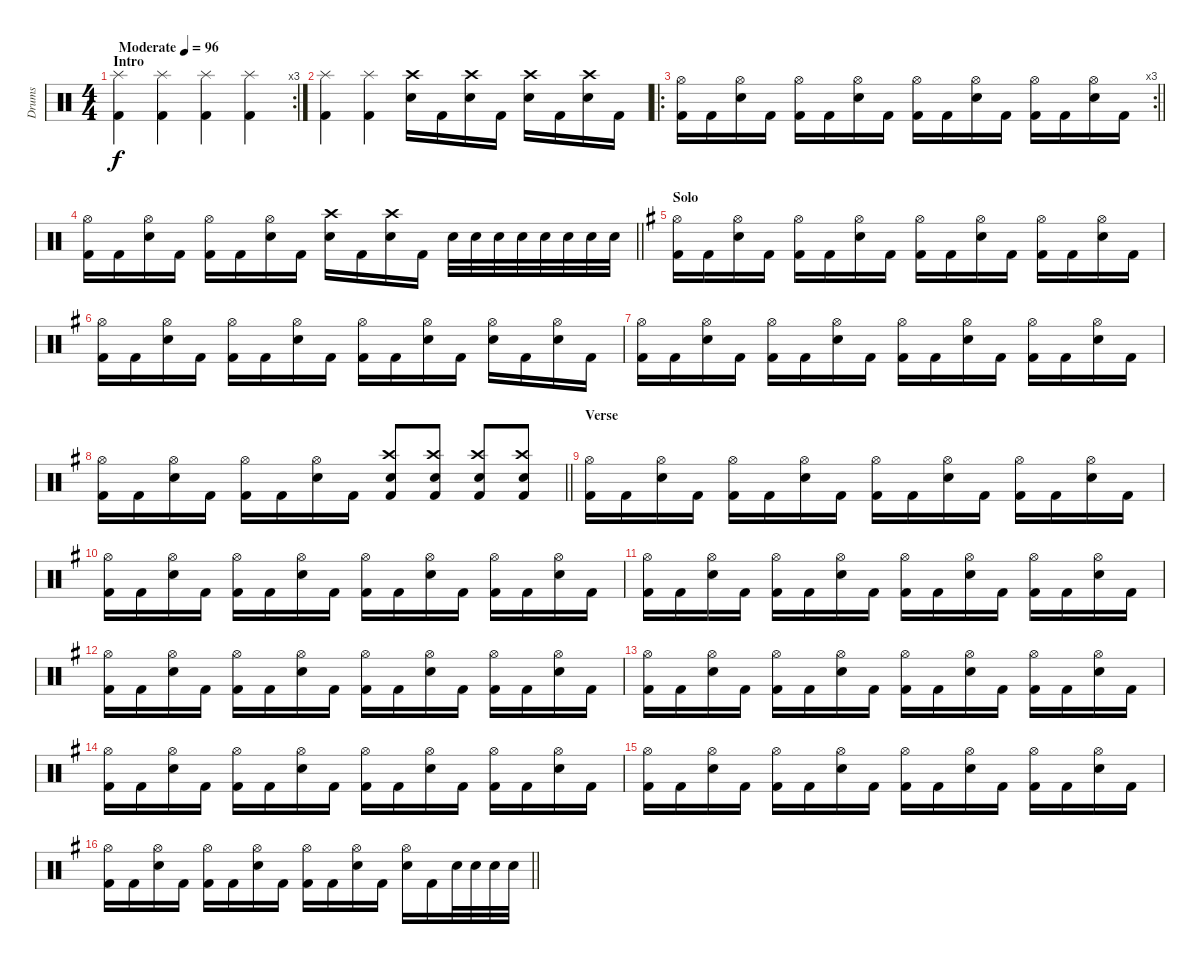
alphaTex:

\track ("Drums" "Drums") {instrument percussion}
\staff {score}
\articulation defaults
\rc 3
\ts (4 4)
\section ("" "Intro")
\tempo (96 "Moderate")
\clef neutral
\ks c
("Splash (hit)" "Kick (hit) 2").4{dy f} ("Splash (hit)" "Kick (hit) 2").4 ("Splash (hit)" "Kick (hit) 2").4 ("Splash (hit)" "Kick (hit) 2").4 |
("Splash (hit)" "Kick (hit) 2").4 ("Splash (hit)" "Kick (hit) 2").4 ("Crash high (hit)" "Electric Snare (hit)").16 "Kick (hit) 2".16 ("Crash high (hit)" "Electric Snare (hit)").16 "Kick (hit) 2".16 ("Crash high (hit)" "Electric Snare (hit)").16 "Kick (hit) 2".16 ("Crash high (hit)" "Electric Snare (hit)").16 "Kick (hit) 2".16 |
\ro
\rc 3
\barLineRight lightlight
("Hi-Hat (open)" "Kick (hit) 2").16 "Kick (hit) 2".16 ("Hi-Hat (open)" "Electric Snare (hit)").16 "Kick (hit) 2".16 ("Hi-Hat (open)" "Kick (hit) 2").16 "Kick (hit) 2".16 ("Hi-Hat (open)" "Electric Snare (hit)").16 "Kick (hit) 2".16 ("Hi-Hat (open)" "Kick (hit) 2").16 "Kick (hit) 2".16 ("Hi-Hat (open)" "Electric Snare (hit)").16 "Kick (hit) 2".16 ("Hi-Hat (open)" "Kick (hit) 2").16 "Kick (hit) 2".16 ("Hi-Hat (open)" "Electric Snare (hit)").16 "Kick (hit) 2".16 |
\barLineRight lightlight
("Hi-Hat (open)" "Kick (hit) 2").16 "Kick (hit) 2".16 ("Hi-Hat (open)" "Electric Snare (hit)").16 "Kick (hit) 2".16 ("Hi-Hat (open)" "Kick (hit) 2").16 "Kick (hit) 2".16 ("Hi-Hat (open)" "Electric Snare (hit)").16 "Kick (hit) 2".16 ("Crash high (hit)" "Electric Snare (hit)").16 "Kick (hit) 2".16 ("Crash high (hit)" "Electric Snare (hit)").16 "Kick (hit) 2".16 "Electric Snare (hit)".32 "Electric Snare (hit)".32 "Electric Snare (hit)".32 "Electric Snare (hit)".32 "Electric Snare (hit)".32 "Electric Snare (hit)".32 "Electric Snare (hit)".32 "Electric Snare (hit)".32 |
\section ("" "Solo")
\ks g
("Hi-Hat (open)" "Kick (hit) 2").16 "Kick (hit) 2".16 ("Hi-Hat (open)" "Electric Snare (hit)").16 "Kick (hit) 2".16 ("Hi-Hat (open)" "Kick (hit) 2").16 "Kick (hit) 2".16 ("Hi-Hat (open)" "Electric Snare (hit)").16 "Kick (hit) 2".16 ("Hi-Hat (open)" "Kick (hit) 2").16 "Kick (hit) 2".16 ("Hi-Hat (open)" "Electric Snare (hit)").16 "Kick (hit) 2".16 ("Hi-Hat (open)" "Kick (hit) 2").16 "Kick (hit) 2".16 ("Hi-Hat (open)" "Electric Snare (hit)").16 "Kick (hit) 2".16 |
("Hi-Hat (open)" "Kick (hit) 2").16 "Kick (hit) 2".16 ("Hi-Hat (open)" "Electric Snare (hit)").16 "Kick (hit) 2".16 ("Hi-Hat (open)" "Kick (hit) 2").16 "Kick (hit) 2".16 ("Hi-Hat (open)" "Electric Snare (hit)").16 "Kick (hit) 2".16 ("Hi-Hat (open)" "Kick (hit) 2").16 "Kick (hit) 2".16 ("Hi-Hat (open)" "Electric Snare (hit)").16 "Kick (hit) 2".16 ("Hi-Hat (open)" "Electric Snare (hit)").16 "Kick (hit) 2".16 ("Hi-Hat (open)" "Electric Snare (hit)").16 "Kick (hit) 2".16 |
("Hi-Hat (open)" "Kick (hit) 2").16 "Kick (hit) 2".16 ("Hi-Hat (open)" "Electric Snare (hit)").16 "Kick (hit) 2".16 ("Hi-Hat (open)" "Kick (hit) 2").16 "Kick (hit) 2".16 ("Hi-Hat (open)" "Electric Snare (hit)").16 "Kick (hit) 2".16 ("Hi-Hat (open)" "Kick (hit) 2").16 "Kick (hit) 2".16 ("Hi-Hat (open)" "Electric Snare (hit)").16 "Kick (hit) 2".16 ("Hi-Hat (open)" "Kick (hit) 2").16 "Kick (hit) 2".16 ("Hi-Hat (open)" "Electric Snare (hit)").16 "Kick (hit) 2".16 |
\barLineRight lightlight
("Hi-Hat (open)" "Kick (hit) 2").16 "Kick (hit) 2".16 ("Hi-Hat (open)" "Electric Snare (hit)").16 "Kick (hit) 2".16 ("Hi-Hat (open)" "Kick (hit) 2").16 "Kick (hit) 2".16 ("Hi-Hat (open)" "Electric Snare (hit)").16 "Kick (hit) 2".16 ("Crash high (hit)" "Electric Snare (hit)" "Kick (hit) 2").8 ("Crash high (hit)" "Electric Snare (hit)" "Kick (hit) 2").8 ("Crash high (hit)" "Electric Snare (hit)" "Kick (hit) 2").8 ("Crash high (hit)" "Electric Snare (hit)" "Kick (hit) 2").8 |
\section ("" "Verse")
("Hi-Hat (open)" "Kick (hit) 2").16 "Kick (hit) 2".16 ("Hi-Hat (open)" "Electric Snare (hit)").16 "Kick (hit) 2".16 ("Hi-Hat (open)" "Kick (hit) 2").16 "Kick (hit) 2".16 ("Hi-Hat (open)" "Electric Snare (hit)").16 "Kick (hit) 2".16 ("Hi-Hat (open)" "Kick (hit) 2").16 "Kick (hit) 2".16 ("Hi-Hat (open)" "Electric Snare (hit)").16 "Kick (hit) 2".16 ("Hi-Hat (open)" "Kick (hit) 2").16 "Kick (hit) 2".16 ("Hi-Hat (open)" "Electric Snare (hit)").16 "Kick (hit) 2".16 |
("Hi-Hat (open)" "Kick (hit) 2").16 "Kick (hit) 2".16 ("Hi-Hat (open)" "Electric Snare (hit)").16 "Kick (hit) 2".16 ("Hi-Hat (open)" "Kick (hit) 2").16 "Kick (hit) 2".16 ("Hi-Hat (open)" "Electric Snare (hit)").16 "Kick (hit) 2".16 ("Hi-Hat (open)" "Kick (hit) 2").16 "Kick (hit) 2".16 ("Hi-Hat (open)" "Electric Snare (hit)").16 "Kick (hit) 2".16 ("Hi-Hat (open)" "Kick (hit) 2").16 "Kick (hit) 2".16 ("Hi-Hat (open)" "Electric Snare (hit)").16 "Kick (hit) 2".16 |
("Hi-Hat (open)" "Kick (hit) 2").16 "Kick (hit) 2".16 ("Hi-Hat (open)" "Electric Snare (hit)").16 "Kick (hit) 2".16 ("Hi-Hat (open)" "Kick (hit) 2").16 "Kick (hit) 2".16 ("Hi-Hat (open)" "Electric Snare (hit)").16 "Kick (hit) 2".16 ("Hi-Hat (open)" "Kick (hit) 2").16 "Kick (hit) 2".16 ("Hi-Hat (open)" "Electric Snare (hit)").16 "Kick (hit) 2".16 ("Hi-Hat (open)" "Kick (hit) 2").16 "Kick (hit) 2".16 ("Hi-Hat (open)" "Electric Snare (hit)").16 "Kick (hit) 2".16 |
("Hi-Hat (open)" "Kick (hit) 2").16 "Kick (hit) 2".16 ("Hi-Hat (open)" "Electric Snare (hit)").16 "Kick (hit) 2".16 ("Hi-Hat (open)" "Kick (hit) 2").16 "Kick (hit) 2".16 ("Hi-Hat (open)" "Electric Snare (hit)").16 "Kick (hit) 2".16 ("Hi-Hat (open)" "Kick (hit) 2").16 "Kick (hit) 2".16 ("Hi-Hat (open)" "Electric Snare (hit)").16 "Kick (hit) 2".16 ("Hi-Hat (open)" "Kick (hit) 2").16 "Kick (hit) 2".16 ("Hi-Hat (open)" "Electric Snare (hit)").16 "Kick (hit) 2".16 |
("Hi-Hat (open)" "Kick (hit) 2").16 "Kick (hit) 2".16 ("Hi-Hat (open)" "Electric Snare (hit)").16 "Kick (hit) 2".16 ("Hi-Hat (open)" "Kick (hit) 2").16 "Kick (hit) 2".16 ("Hi-Hat (open)" "Electric Snare (hit)").16 "Kick (hit) 2".16 ("Hi-Hat (open)" "Kick (hit) 2").16 "Kick (hit) 2".16 ("Hi-Hat (open)" "Electric Snare (hit)").16 "Kick (hit) 2".16 ("Hi-Hat (open)" "Kick (hit) 2").16 "Kick (hit) 2".16 ("Hi-Hat (open)" "Electric Snare (hit)").16 "Kick (hit) 2".16 |
("Hi-Hat (open)" "Kick (hit) 2").16 "Kick (hit) 2".16 ("Hi-Hat (open)" "Electric Snare (hit)").16 "Kick (hit) 2".16 ("Hi-Hat (open)" "Kick (hit) 2").16 "Kick (hit) 2".16 ("Hi-Hat (open)" "Electric Snare (hit)").16 "Kick (hit) 2".16 ("Hi-Hat (open)" "Kick (hit) 2").16 "Kick (hit) 2".16 ("Hi-Hat (open)" "Electric Snare (hit)").16 "Kick (hit) 2".16 ("Hi-Hat (open)" "Kick (hit) 2").16 "Kick (hit) 2".16 ("Hi-Hat (open)" "Electric Snare (hit)").16 "Kick (hit) 2".16 |
("Hi-Hat (open)" "Kick (hit) 2").16 "Kick (hit) 2".16 ("Hi-Hat (open)" "Electric Snare (hit)").16 "Kick (hit) 2".16 ("Hi-Hat (open)" "Kick (hit) 2").16 "Kick (hit) 2".16 ("Hi-Hat (open)" "Electric Snare (hit)").16 "Kick (hit) 2".16 ("Hi-Hat (open)" "Kick (hit) 2").16 "Kick (hit) 2".16 ("Hi-Hat (open)" "Electric Snare (hit)").16 "Kick (hit) 2".16 ("Hi-Hat (open)" "Kick (hit) 2").16 "Kick (hit) 2".16 ("Hi-Hat (open)" "Electric Snare (hit)").16 "Kick (hit) 2".16 |
\barLineRight lightlight
("Hi-Hat (open)" "Kick (hit) 2").16 "Kick (hit) 2".16 ("Hi-Hat (open)" "Electric Snare (hit)").16 "Kick (hit) 2".16 ("Hi-Hat (open)" "Kick (hit) 2").16 "Kick (hit) 2".16 ("Hi-Hat (open)" "Electric Snare (hit)").16 "Kick (hit) 2".16 ("Hi-Hat (open)" "Kick (hit) 2").16 "Kick (hit) 2".16 ("Hi-Hat (open)" "Electric Snare (hit)").16 "Kick (hit) 2".16 ("Hi-Hat (open)" "Electric Snare (hit)").16 "Kick (hit) 2".16 "Electric Snare (hit)".32 "Electric Snare (hit)".32 "Electric Snare (hit)".32 "Electric Snare (hit)".32
